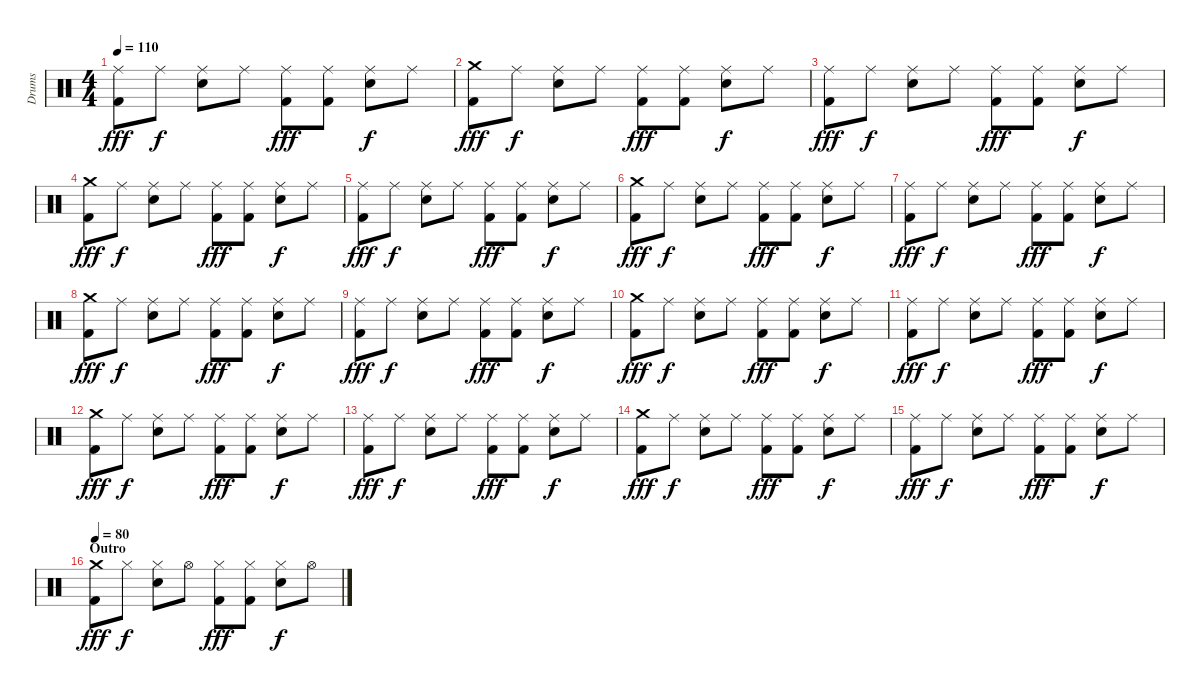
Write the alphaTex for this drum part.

\track ("Drums" "Drums") {instrument percussion}
\staff {score}
\articulation defaults
\ts (4 4)
\tempo 110
\clef neutral
\ks c
("Ride (middle)" "Kick (hit) 2").8{dy fff} "Ride (middle)".8{dy f} ("Ride (middle)" "Snare (hit) 2").8 "Ride (middle)".8 ("Ride (middle)" "Kick (hit) 2").8{dy fff} ("Ride (middle)" "Kick (hit) 2").8 ("Ride (middle)" "Snare (hit) 2").8{dy f} "Ride (middle)".8 |
("Crash medium (hit)" "Kick (hit) 2").8{dy fff} "Ride (middle)".8{dy f} ("Ride (middle)" "Snare (hit) 2").8 "Ride (middle)".8 ("Ride (middle)" "Kick (hit) 2").8{dy fff} ("Ride (middle)" "Kick (hit) 2").8 ("Ride (middle)" "Snare (hit) 2").8{dy f} "Ride (middle)".8 |
("Ride (middle)" "Kick (hit) 2").8{dy fff} "Ride (middle)".8{dy f} ("Ride (middle)" "Snare (hit) 2").8 "Ride (middle)".8 ("Ride (middle)" "Kick (hit) 2").8{dy fff} ("Ride (middle)" "Kick (hit) 2").8 ("Ride (middle)" "Snare (hit) 2").8{dy f} "Ride (middle)".8 |
("Crash medium (hit)" "Kick (hit) 2").8{dy fff} "Ride (middle)".8{dy f} ("Ride (middle)" "Snare (hit) 2").8 "Ride (middle)".8 ("Ride (middle)" "Kick (hit) 2").8{dy fff} ("Ride (middle)" "Kick (hit) 2").8 ("Ride (middle)" "Snare (hit) 2").8{dy f} "Ride (middle)".8 |
("Ride (middle)" "Kick (hit) 2").8{dy fff} "Ride (middle)".8{dy f} ("Ride (middle)" "Snare (hit) 2").8 "Ride (middle)".8 ("Ride (middle)" "Kick (hit) 2").8{dy fff} ("Ride (middle)" "Kick (hit) 2").8 ("Ride (middle)" "Snare (hit) 2").8{dy f} "Ride (middle)".8 |
("Crash medium (hit)" "Kick (hit) 2").8{dy fff} "Ride (middle)".8{dy f} ("Ride (middle)" "Snare (hit) 2").8 "Ride (middle)".8 ("Ride (middle)" "Kick (hit) 2").8{dy fff} ("Ride (middle)" "Kick (hit) 2").8 ("Ride (middle)" "Snare (hit) 2").8{dy f} "Ride (middle)".8 |
("Ride (middle)" "Kick (hit) 2").8{dy fff} "Ride (middle)".8{dy f} ("Ride (middle)" "Snare (hit) 2").8 "Ride (middle)".8 ("Ride (middle)" "Kick (hit) 2").8{dy fff} ("Ride (middle)" "Kick (hit) 2").8 ("Ride (middle)" "Snare (hit) 2").8{dy f} "Ride (middle)".8 |
("Crash medium (hit)" "Kick (hit) 2").8{dy fff} "Ride (middle)".8{dy f} ("Ride (middle)" "Snare (hit) 2").8 "Ride (middle)".8 ("Ride (middle)" "Kick (hit) 2").8{dy fff} ("Ride (middle)" "Kick (hit) 2").8 ("Ride (middle)" "Snare (hit) 2").8{dy f} "Ride (middle)".8 |
("Ride (middle)" "Kick (hit) 2").8{dy fff} "Ride (middle)".8{dy f} ("Ride (middle)" "Snare (hit) 2").8 "Ride (middle)".8 ("Ride (middle)" "Kick (hit) 2").8{dy fff} ("Ride (middle)" "Kick (hit) 2").8 ("Ride (middle)" "Snare (hit) 2").8{dy f} "Ride (middle)".8 |
("Crash medium (hit)" "Kick (hit) 2").8{dy fff} "Ride (middle)".8{dy f} ("Ride (middle)" "Snare (hit) 2").8 "Ride (middle)".8 ("Ride (middle)" "Kick (hit) 2").8{dy fff} ("Ride (middle)" "Kick (hit) 2").8 ("Ride (middle)" "Snare (hit) 2").8{dy f} "Ride (middle)".8 |
("Ride (middle)" "Kick (hit) 2").8{dy fff} "Ride (middle)".8{dy f} ("Ride (middle)" "Snare (hit) 2").8 "Ride (middle)".8 ("Ride (middle)" "Kick (hit) 2").8{dy fff} ("Ride (middle)" "Kick (hit) 2").8 ("Ride (middle)" "Snare (hit) 2").8{dy f} "Ride (middle)".8 |
("Crash medium (hit)" "Kick (hit) 2").8{dy fff} "Ride (middle)".8{dy f} ("Ride (middle)" "Snare (hit) 2").8 "Ride (middle)".8 ("Ride (middle)" "Kick (hit) 2").8{dy fff} ("Ride (middle)" "Kick (hit) 2").8 ("Ride (middle)" "Snare (hit) 2").8{dy f} "Ride (middle)".8 |
("Ride (middle)" "Kick (hit) 2").8{dy fff} "Ride (middle)".8{dy f} ("Ride (middle)" "Snare (hit) 2").8 "Ride (middle)".8 ("Ride (middle)" "Kick (hit) 2").8{dy fff} ("Ride (middle)" "Kick (hit) 2").8 ("Ride (middle)" "Snare (hit) 2").8{dy f} "Ride (middle)".8 |
("Crash medium (hit)" "Kick (hit) 2").8{dy fff} "Ride (middle)".8{dy f} ("Ride (middle)" "Snare (hit) 2").8 "Ride (middle)".8 ("Ride (middle)" "Kick (hit) 2").8{dy fff} ("Ride (middle)" "Kick (hit) 2").8 ("Ride (middle)" "Snare (hit) 2").8{dy f} "Ride (middle)".8 |
("Ride (middle)" "Kick (hit) 2").8{dy fff} "Ride (middle)".8{dy f} ("Ride (middle)" "Snare (hit) 2").8 "Ride (middle)".8 ("Ride (middle)" "Kick (hit) 2").8{dy fff} ("Ride (middle)" "Kick (hit) 2").8 ("Ride (middle)" "Snare (hit) 2").8{dy f} "Ride (middle)".8 |
\section ("" "Outro")
\tempo 80
("Crash medium (hit)" "Kick (hit) 2").8{dy fff} "Hi-Hat (closed)".8{dy f} ("Hi-Hat (closed)" "Snare (hit) 2").8 "Hi-Hat (open)".8 ("Hi-Hat (closed)" "Kick (hit) 2").8{dy fff} ("Hi-Hat (closed)" "Kick (hit) 2").8 ("Hi-Hat (closed)" "Snare (hit) 2").8{dy f} "Hi-Hat (open)".8
